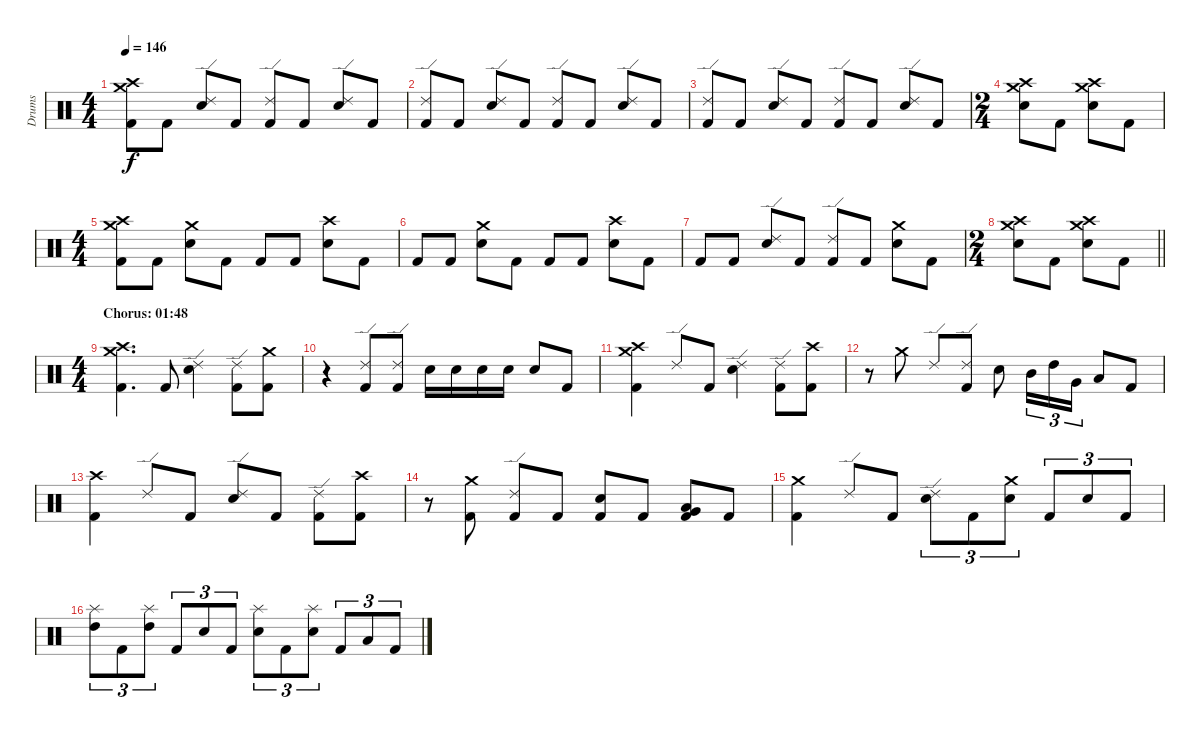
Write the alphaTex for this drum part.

\track ("Drums" "Drums") {instrument percussion}
\staff {score}
\articulation defaults
\ts (4 4)
\tempo 146
\clef neutral
\ks c
("Crash high (hit)" "Crash medium (hit)" "Kick (hit) 2").8{dy f} "Kick (hit) 2".8 ("Ride (edge) 2" "Electric Snare (hit)").8 "Kick (hit) 2".8 ("Ride (edge) 2" "Kick (hit) 2").8 "Kick (hit) 2".8 ("Ride (edge) 2" "Electric Snare (hit)").8 "Kick (hit) 2".8 |
("Ride (edge) 2" "Kick (hit) 2").8 "Kick (hit) 2".8 ("Ride (edge) 2" "Electric Snare (hit)").8 "Kick (hit) 2".8 ("Ride (edge) 2" "Kick (hit) 2").8 "Kick (hit) 2".8 ("Ride (edge) 2" "Electric Snare (hit)").8 "Kick (hit) 2".8 |
("Ride (edge) 2" "Kick (hit) 2").8 "Kick (hit) 2".8 ("Ride (edge) 2" "Electric Snare (hit)").8 "Kick (hit) 2".8 ("Ride (edge) 2" "Kick (hit) 2").8 "Kick (hit) 2".8 ("Ride (edge) 2" "Electric Snare (hit)").8 "Kick (hit) 2".8 |
\ts (2 4)
("Crash high (hit)" "Crash medium (hit)" "Electric Snare (hit)").8 "Kick (hit) 2".8 ("Crash high (hit)" "Crash medium (hit)" "Electric Snare (hit)").8 "Kick (hit) 2".8 |
\ts (4 4)
("Crash high (hit)" "Crash medium (hit)" "Kick (hit) 2").8 "Kick (hit) 2".8 ("Crash medium (hit)" "Electric Snare (hit)").8 "Kick (hit) 2".8 "Kick (hit) 2".8 "Kick (hit) 2".8 ("Crash high (hit)" "Electric Snare (hit)").8 "Kick (hit) 2".8 |
"Kick (hit) 2".8 "Kick (hit) 2".8 ("Crash medium (hit)" "Electric Snare (hit)").8 "Kick (hit) 2".8 "Kick (hit) 2".8 "Kick (hit) 2".8 ("Crash high (hit)" "Electric Snare (hit)").8 "Kick (hit) 2".8 |
"Kick (hit) 2".8 "Kick (hit) 2".8 ("Ride (edge) 2" "Electric Snare (hit)").8 "Kick (hit) 2".8 ("Ride (edge) 2" "Kick (hit) 2").8 "Kick (hit) 2".8 ("Crash medium (hit)" "Electric Snare (hit)").8 "Kick (hit) 2".8 |
\ts (2 4)
\barLineRight lightlight
("Crash high (hit)" "Crash medium (hit)" "Electric Snare (hit)").8 "Kick (hit) 2".8 ("Crash high (hit)" "Crash medium (hit)" "Electric Snare (hit)").8 "Kick (hit) 2".8 |
\ts (4 4)
\section ("" "Chorus: 01:48")
("Crash high (hit)" "Crash medium (hit)" "Kick (hit) 2").4{d} "Kick (hit) 2".8 ("Ride (edge) 2" "Electric Snare (hit)").4 ("Ride (edge) 2" "Kick (hit) 2").8 ("Crash medium (hit)" "Kick (hit) 2").8 |
r.4 ("Ride (edge) 2" "Kick (hit) 2").8 ("Ride (edge) 2" "Kick (hit) 2").8 "Electric Snare (hit)".16 "Electric Snare (hit)".16 "Electric Snare (hit)".16 "Electric Snare (hit)".16 "Electric Snare (hit)".8 "Kick (hit) 2".8 |
("Crash high (hit)" "Crash medium (hit)" "Kick (hit) 2").4 "Ride (edge) 2".8 "Kick (hit) 2".8 ("Ride (edge) 2" "Electric Snare (hit)").4 ("Ride (edge) 2" "Kick (hit) 2").8 ("Crash high (hit)" "Kick (hit) 2").8 |
r.8 "Crash medium (hit)".8 "Ride (edge) 2".8 ("Ride (edge) 2" "Kick (hit) 2").8 "Electric Snare (hit)".8 "Mid Tom (hit)".16{tu (3 2)} "High Tom (hit)".16{tu (3 2)} "Very Low Tom (hit)".16{tu (3 2)} "Low Tom (hit)".8 "Kick (hit) 2".8 |
("Crash high (hit)" "Kick (hit) 2").4 "Ride (edge) 2".8 "Kick (hit) 2".8 ("Ride (edge) 2" "Electric Snare (hit)").8 "Kick (hit) 2".8 ("Ride (edge) 2" "Kick (hit) 2").8 ("Crash high (hit)" "Kick (hit) 2").8 |
r.8 ("Crash medium (hit)" "Kick (hit) 2").8 ("Ride (edge) 2" "Kick (hit) 2").8 "Kick (hit) 2".8 ("Electric Snare (hit)" "Kick (hit) 2").8 "Kick (hit) 2".8 ("Low Tom (hit)" "Very Low Tom (hit)" "Kick (hit) 2").8 "Kick (hit) 2".8 |
("Crash medium (hit)" "Kick (hit) 2").4 "Ride (edge) 2".8 "Kick (hit) 2".8 ("Ride (edge) 2" "Electric Snare (hit)").8{tu (3 2)} "Kick (hit) 2".8{tu (3 2)} ("Crash medium (hit)" "Electric Snare (hit)").8{tu (3 2)} "Kick (hit) 2".8{tu (3 2)} "Electric Snare (hit)".8{tu (3 2)} "Kick (hit) 2".8{tu (3 2)} |
("Splash (hit)" "High Tom (hit)").8{tu (3 2)} "Kick (hit) 2".8{tu (3 2)} ("Splash (hit)" "High Tom (hit)").8{tu (3 2)} "Kick (hit) 2".8{tu (3 2)} "Electric Snare (hit)".8{tu (3 2)} "Kick (hit) 2".8{tu (3 2)} ("Splash (hit)" "Electric Snare (hit)").8{tu (3 2)} "Kick (hit) 2".8{tu (3 2)} ("Splash (hit)" "Electric Snare (hit)").8{tu (3 2)} "Kick (hit) 2".8{tu (3 2)} "Low Floor Tom (hit)".8{tu (3 2)} "Kick (hit) 2".8{tu (3 2)}
